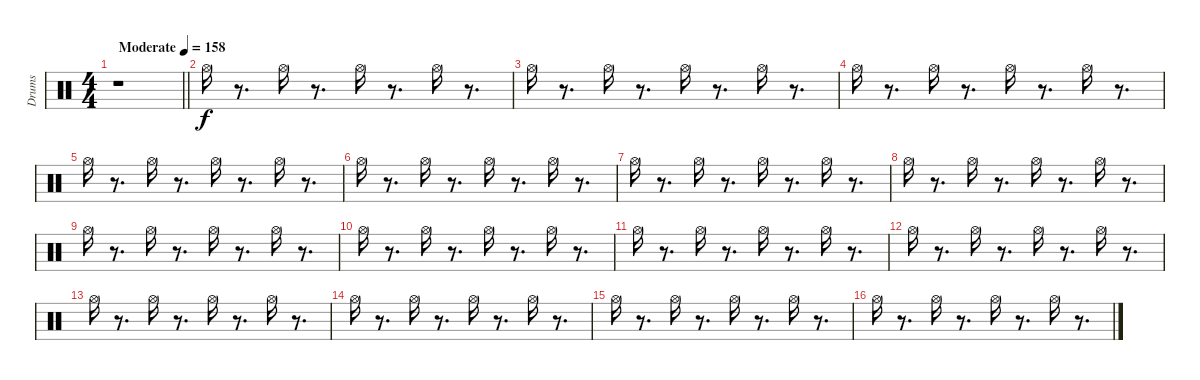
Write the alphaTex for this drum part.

\track ("Drums" "Drums") {instrument percussion}
\staff {score}
\articulation defaults
\ts (4 4)
\tempo (158 "Moderate")
\clef neutral
\barLineRight lightlight
\ks c
r.1{dy f} |
\section ("" " ")
"Hi-Hat (open)".16 r.8{d} "Hi-Hat (open)".16 r.8{d} "Hi-Hat (open)".16 r.8{d} "Hi-Hat (open)".16 r.8{d} |
"Hi-Hat (open)".16 r.8{d} "Hi-Hat (open)".16 r.8{d} "Hi-Hat (open)".16 r.8{d} "Hi-Hat (open)".16 r.8{d} |
"Hi-Hat (open)".16 r.8{d} "Hi-Hat (open)".16 r.8{d} "Hi-Hat (open)".16 r.8{d} "Hi-Hat (open)".16 r.8{d} |
"Hi-Hat (open)".16 r.8{d} "Hi-Hat (open)".16 r.8{d} "Hi-Hat (open)".16 r.8{d} "Hi-Hat (open)".16 r.8{d} |
"Hi-Hat (open)".16 r.8{d} "Hi-Hat (open)".16 r.8{d} "Hi-Hat (open)".16 r.8{d} "Hi-Hat (open)".16 r.8{d} |
"Hi-Hat (open)".16 r.8{d} "Hi-Hat (open)".16 r.8{d} "Hi-Hat (open)".16 r.8{d} "Hi-Hat (open)".16 r.8{d} |
"Hi-Hat (open)".16 r.8{d} "Hi-Hat (open)".16 r.8{d} "Hi-Hat (open)".16 r.8{d} "Hi-Hat (open)".16 r.8{d} |
"Hi-Hat (open)".16 r.8{d} "Hi-Hat (open)".16 r.8{d} "Hi-Hat (open)".16 r.8{d} "Hi-Hat (open)".16 r.8{d} |
"Hi-Hat (open)".16 r.8{d} "Hi-Hat (open)".16 r.8{d} "Hi-Hat (open)".16 r.8{d} "Hi-Hat (open)".16 r.8{d} |
"Hi-Hat (open)".16 r.8{d} "Hi-Hat (open)".16 r.8{d} "Hi-Hat (open)".16 r.8{d} "Hi-Hat (open)".16 r.8{d} |
"Hi-Hat (open)".16 r.8{d} "Hi-Hat (open)".16 r.8{d} "Hi-Hat (open)".16 r.8{d} "Hi-Hat (open)".16 r.8{d} |
"Hi-Hat (open)".16 r.8{d} "Hi-Hat (open)".16 r.8{d} "Hi-Hat (open)".16 r.8{d} "Hi-Hat (open)".16 r.8{d} |
"Hi-Hat (open)".16 r.8{d} "Hi-Hat (open)".16 r.8{d} "Hi-Hat (open)".16 r.8{d} "Hi-Hat (open)".16 r.8{d} |
"Hi-Hat (open)".16 r.8{d} "Hi-Hat (open)".16 r.8{d} "Hi-Hat (open)".16 r.8{d} "Hi-Hat (open)".16 r.8{d} |
"Hi-Hat (open)".16 r.8{d} "Hi-Hat (open)".16 r.8{d} "Hi-Hat (open)".16 r.8{d} "Hi-Hat (open)".16 r.8{d}
